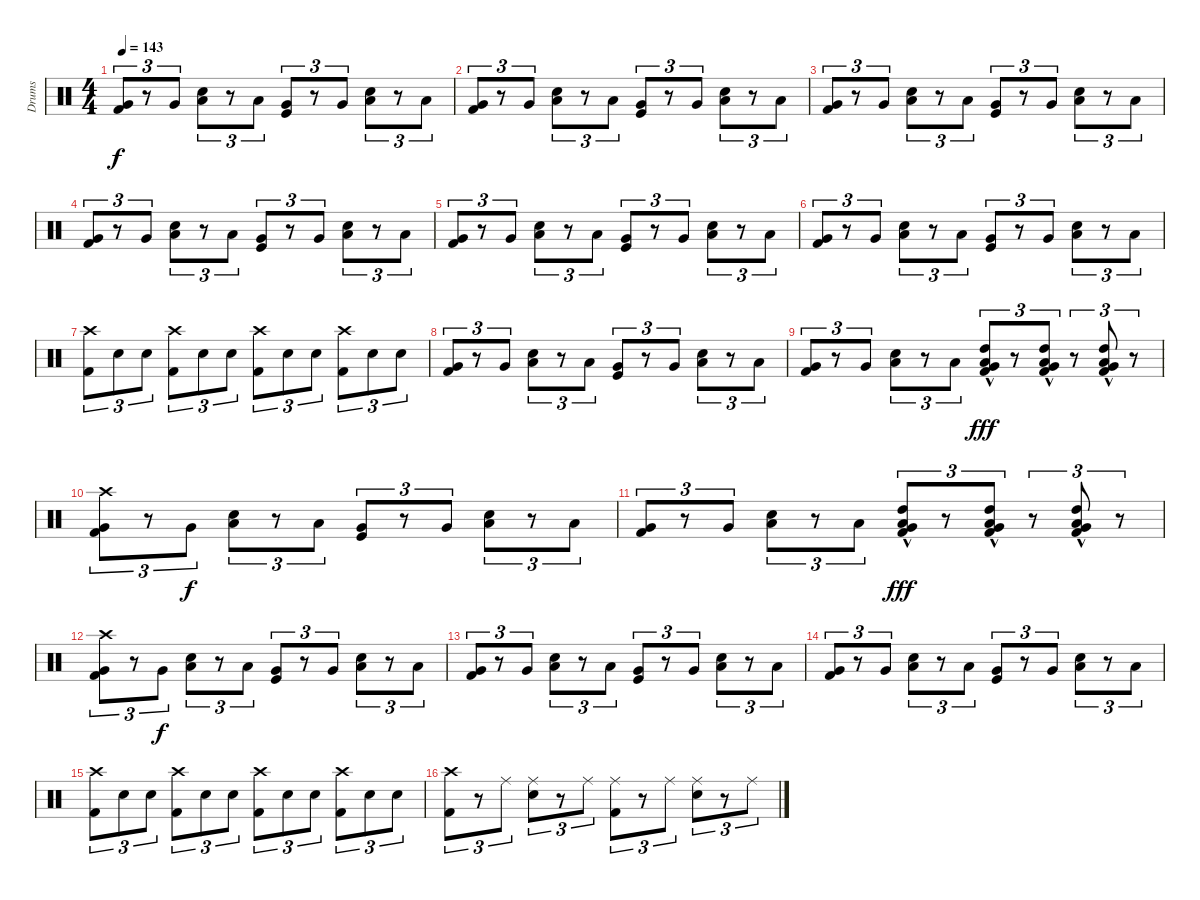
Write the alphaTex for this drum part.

\track ("Drums" "Drums") {instrument percussion}
\staff {score}
\articulation defaults
\ts (4 4)
\tempo 143
\clef neutral
\ks c
("Kick (hit) 2" "Very Low Tom (hit)").8{tu (3 2) dy f} r.8{tu (3 2)} "Very Low Tom (hit)".8{tu (3 2)} ("Snare (hit) 2" "Low Tom (hit)").8{tu (3 2)} r.8{tu (3 2)} "Low Tom (hit)".8{tu (3 2)} ("Kick (hit)" "Very Low Tom (hit)").8{tu (3 2)} r.8{tu (3 2)} "Very Low Tom (hit)".8{tu (3 2)} ("Snare (hit) 2" "Low Tom (hit)").8{tu (3 2)} r.8{tu (3 2)} "Low Tom (hit)".8{tu (3 2)} |
("Kick (hit) 2" "Very Low Tom (hit)").8{tu (3 2)} r.8{tu (3 2)} "Very Low Tom (hit)".8{tu (3 2)} ("Snare (hit) 2" "Low Tom (hit)").8{tu (3 2)} r.8{tu (3 2)} "Low Tom (hit)".8{tu (3 2)} ("Kick (hit)" "Very Low Tom (hit)").8{tu (3 2)} r.8{tu (3 2)} "Very Low Tom (hit)".8{tu (3 2)} ("Snare (hit) 2" "Low Tom (hit)").8{tu (3 2)} r.8{tu (3 2)} "Low Tom (hit)".8{tu (3 2)} |
("Kick (hit) 2" "Very Low Tom (hit)").8{tu (3 2)} r.8{tu (3 2)} "Very Low Tom (hit)".8{tu (3 2)} ("Snare (hit) 2" "Low Tom (hit)").8{tu (3 2)} r.8{tu (3 2)} "Low Tom (hit)".8{tu (3 2)} ("Kick (hit)" "Very Low Tom (hit)").8{tu (3 2)} r.8{tu (3 2)} "Very Low Tom (hit)".8{tu (3 2)} ("Snare (hit) 2" "Low Tom (hit)").8{tu (3 2)} r.8{tu (3 2)} "Low Tom (hit)".8{tu (3 2)} |
("Kick (hit) 2" "Very Low Tom (hit)").8{tu (3 2)} r.8{tu (3 2)} "Very Low Tom (hit)".8{tu (3 2)} ("Snare (hit) 2" "Low Tom (hit)").8{tu (3 2)} r.8{tu (3 2)} "Low Tom (hit)".8{tu (3 2)} ("Kick (hit)" "Very Low Tom (hit)").8{tu (3 2)} r.8{tu (3 2)} "Very Low Tom (hit)".8{tu (3 2)} ("Snare (hit) 2" "Low Tom (hit)").8{tu (3 2)} r.8{tu (3 2)} "Low Tom (hit)".8{tu (3 2)} |
("Kick (hit) 2" "Very Low Tom (hit)").8{tu (3 2)} r.8{tu (3 2)} "Very Low Tom (hit)".8{tu (3 2)} ("Snare (hit) 2" "Low Tom (hit)").8{tu (3 2)} r.8{tu (3 2)} "Low Tom (hit)".8{tu (3 2)} ("Kick (hit)" "Very Low Tom (hit)").8{tu (3 2)} r.8{tu (3 2)} "Very Low Tom (hit)".8{tu (3 2)} ("Snare (hit) 2" "Low Tom (hit)").8{tu (3 2)} r.8{tu (3 2)} "Low Tom (hit)".8{tu (3 2)} |
("Kick (hit) 2" "Very Low Tom (hit)").8{tu (3 2)} r.8{tu (3 2)} "Very Low Tom (hit)".8{tu (3 2)} ("Snare (hit) 2" "Low Tom (hit)").8{tu (3 2)} r.8{tu (3 2)} "Low Tom (hit)".8{tu (3 2)} ("Kick (hit)" "Very Low Tom (hit)").8{tu (3 2)} r.8{tu (3 2)} "Very Low Tom (hit)".8{tu (3 2)} ("Snare (hit) 2" "Low Tom (hit)").8{tu (3 2)} r.8{tu (3 2)} "Low Tom (hit)".8{tu (3 2)} |
("Crash high (hit)" "Kick (hit) 2").8{tu (3 2)} "Snare (hit) 2".8{tu (3 2)} "Snare (hit) 2".8{tu (3 2)} ("Crash high (hit)" "Kick (hit) 2").8{tu (3 2)} "Snare (hit) 2".8{tu (3 2)} "Snare (hit) 2".8{tu (3 2)} ("Crash high (hit)" "Kick (hit) 2").8{tu (3 2)} "Snare (hit) 2".8{tu (3 2)} "Snare (hit) 2".8{tu (3 2)} ("Crash high (hit)" "Kick (hit) 2").8{tu (3 2)} "Snare (hit) 2".8{tu (3 2)} "Snare (hit) 2".8{tu (3 2)} |
("Kick (hit) 2" "Very Low Tom (hit)").8{tu (3 2)} r.8{tu (3 2)} "Very Low Tom (hit)".8{tu (3 2)} ("Snare (hit) 2" "Low Tom (hit)").8{tu (3 2)} r.8{tu (3 2)} "Low Tom (hit)".8{tu (3 2)} ("Kick (hit)" "Very Low Tom (hit)").8{tu (3 2)} r.8{tu (3 2)} "Very Low Tom (hit)".8{tu (3 2)} ("Snare (hit) 2" "Low Tom (hit)").8{tu (3 2)} r.8{tu (3 2)} "Low Tom (hit)".8{tu (3 2)} |
("Kick (hit) 2" "Very Low Tom (hit)").8{tu (3 2)} r.8{tu (3 2)} "Very Low Tom (hit)".8{tu (3 2)} ("Snare (hit) 2" "Low Tom (hit)").8{tu (3 2)} r.8{tu (3 2)} "Low Tom (hit)".8{tu (3 2)} ("Kick (hit) 2" "High Tom (hit)"{hac} "Low Tom (hit)"{hac} "Very Low Tom (hit)"{hac}).8{tu (3 2) dy fff} r.8{tu (3 2)} ("Kick (hit) 2" "High Tom (hit)"{hac} "Low Tom (hit)"{hac} "Very Low Tom (hit)"{hac}).8{tu (3 2)} r.8{tu (3 2)} ("Kick (hit) 2" "High Tom (hit)"{hac} "Low Tom (hit)"{hac} "Very Low Tom (hit)"{hac}).8{tu (3 2)} r.8{tu (3 2)} |
("Crash high (hit)" "Kick (hit) 2" "Very Low Tom (hit)").8{tu (3 2)} r.8{tu (3 2)} "Very Low Tom (hit)".8{tu (3 2) dy f} ("Snare (hit) 2" "Low Tom (hit)").8{tu (3 2)} r.8{tu (3 2)} "Low Tom (hit)".8{tu (3 2)} ("Kick (hit)" "Very Low Tom (hit)").8{tu (3 2)} r.8{tu (3 2)} "Very Low Tom (hit)".8{tu (3 2)} ("Snare (hit) 2" "Low Tom (hit)").8{tu (3 2)} r.8{tu (3 2)} "Low Tom (hit)".8{tu (3 2)} |
("Kick (hit) 2" "Very Low Tom (hit)").8{tu (3 2)} r.8{tu (3 2)} "Very Low Tom (hit)".8{tu (3 2)} ("Snare (hit) 2" "Low Tom (hit)").8{tu (3 2)} r.8{tu (3 2)} "Low Tom (hit)".8{tu (3 2)} ("Kick (hit) 2" "High Tom (hit)"{hac} "Low Tom (hit)"{hac} "Very Low Tom (hit)"{hac}).8{tu (3 2) dy fff} r.8{tu (3 2)} ("Kick (hit) 2" "High Tom (hit)"{hac} "Low Tom (hit)"{hac} "Very Low Tom (hit)"{hac}).8{tu (3 2)} r.8{tu (3 2)} ("Kick (hit) 2" "High Tom (hit)"{hac} "Low Tom (hit)"{hac} "Very Low Tom (hit)"{hac}).8{tu (3 2)} r.8{tu (3 2)} |
("Crash high (hit)" "Kick (hit) 2" "Very Low Tom (hit)").8{tu (3 2)} r.8{tu (3 2)} "Very Low Tom (hit)".8{tu (3 2) dy f} ("Snare (hit) 2" "Low Tom (hit)").8{tu (3 2)} r.8{tu (3 2)} "Low Tom (hit)".8{tu (3 2)} ("Kick (hit)" "Very Low Tom (hit)").8{tu (3 2)} r.8{tu (3 2)} "Very Low Tom (hit)".8{tu (3 2)} ("Snare (hit) 2" "Low Tom (hit)").8{tu (3 2)} r.8{tu (3 2)} "Low Tom (hit)".8{tu (3 2)} |
("Kick (hit) 2" "Very Low Tom (hit)").8{tu (3 2)} r.8{tu (3 2)} "Very Low Tom (hit)".8{tu (3 2)} ("Snare (hit) 2" "Low Tom (hit)").8{tu (3 2)} r.8{tu (3 2)} "Low Tom (hit)".8{tu (3 2)} ("Kick (hit)" "Very Low Tom (hit)").8{tu (3 2)} r.8{tu (3 2)} "Very Low Tom (hit)".8{tu (3 2)} ("Snare (hit) 2" "Low Tom (hit)").8{tu (3 2)} r.8{tu (3 2)} "Low Tom (hit)".8{tu (3 2)} |
("Kick (hit) 2" "Very Low Tom (hit)").8{tu (3 2)} r.8{tu (3 2)} "Very Low Tom (hit)".8{tu (3 2)} ("Snare (hit) 2" "Low Tom (hit)").8{tu (3 2)} r.8{tu (3 2)} "Low Tom (hit)".8{tu (3 2)} ("Kick (hit)" "Very Low Tom (hit)").8{tu (3 2)} r.8{tu (3 2)} "Very Low Tom (hit)".8{tu (3 2)} ("Snare (hit) 2" "Low Tom (hit)").8{tu (3 2)} r.8{tu (3 2)} "Low Tom (hit)".8{tu (3 2)} |
("Crash high (hit)" "Kick (hit) 2").8{tu (3 2)} "Snare (hit) 2".8{tu (3 2)} "Snare (hit) 2".8{tu (3 2)} ("Crash high (hit)" "Kick (hit) 2").8{tu (3 2)} "Snare (hit) 2".8{tu (3 2)} "Snare (hit) 2".8{tu (3 2)} ("Crash high (hit)" "Kick (hit) 2").8{tu (3 2)} "Snare (hit) 2".8{tu (3 2)} "Snare (hit) 2".8{tu (3 2)} ("Crash high (hit)" "Kick (hit) 2").8{tu (3 2)} "Snare (hit) 2".8{tu (3 2)} "Snare (hit) 2".8{tu (3 2)} |
("Kick (hit) 2" "Crash high (hit)").8{tu (3 2)} r.8{tu (3 2)} "Ride (middle)".8{tu (3 2)} ("Snare (hit) 2" "Ride (middle)").8{tu (3 2)} r.8{tu (3 2)} "Ride (middle)".8{tu (3 2)} ("Kick (hit) 2" "Ride (middle)").8{tu (3 2)} r.8{tu (3 2)} "Ride (middle)".8{tu (3 2)} ("Snare (hit) 2" "Ride (middle)").8{tu (3 2)} r.8{tu (3 2)} "Ride (middle)".8{tu (3 2)}
